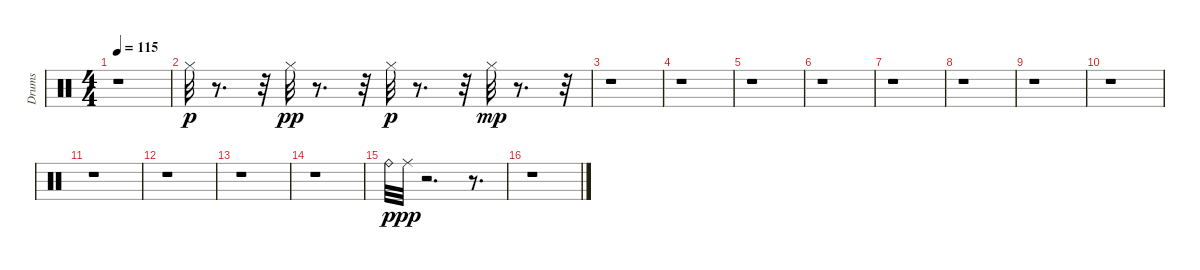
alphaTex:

\track ("Drums" "Drums") {instrument percussion}
\staff {score}
\articulation defaults
\ts (4 4)
\tempo 115
\clef neutral
\ks c
r.1{dy p} |
"Hi-Hat (closed)".32 r.8{d} r.32 "Hi-Hat (closed)".32{dy pp} r.8{d} r.32 "Hi-Hat (closed)".32{dy p} r.8{d} r.32 "Hi-Hat (closed)".32{dy mp} r.8{d} r.32 |
r.1 |
r.1 |
r.1 |
r.1 |
r.1 |
r.1 |
r.1 |
r.1 |
r.1 |
r.1 |
r.1 |
r.1 |
"Ride (bell)".32{dy p} "Ride (middle)".32{dy pp} r.2{d} r.8{d} |
r.1
